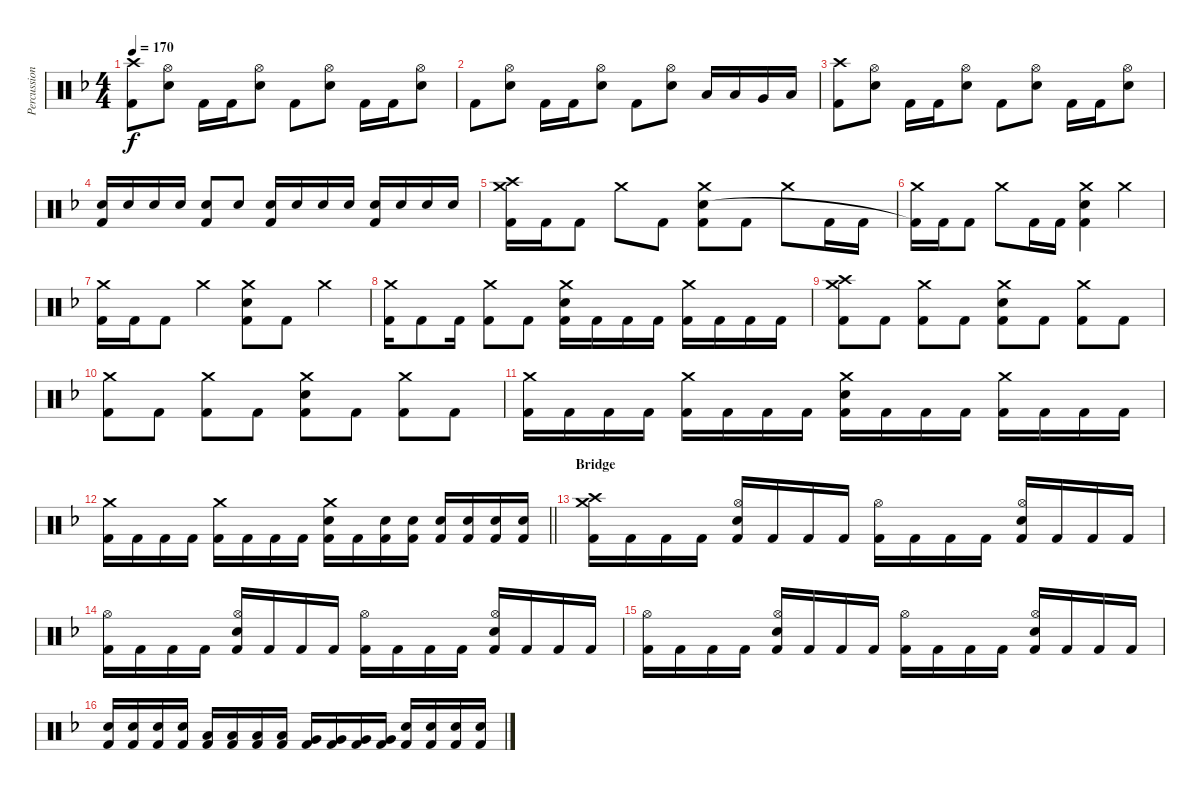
\track ("Percussion" "Percussion") {instrument percussion}
\staff {score}
\articulation defaults
\ts (4 4)
\tempo 170
\clef neutral
\ks dminor
("Crash high (hit)" "Kick (hit) 2").8{dy f} ("Hi-Hat (open)" "Electric Snare (hit)").8 "Kick (hit) 2".16 "Kick (hit) 2".16 ("Hi-Hat (open)" "Electric Snare (hit)").8 "Kick (hit) 2".8 ("Hi-Hat (open)" "Electric Snare (hit)").8 "Kick (hit) 2".16 "Kick (hit) 2".16 ("Hi-Hat (open)" "Electric Snare (hit)").8 |
"Kick (hit) 2".8 ("Hi-Hat (open)" "Electric Snare (hit)").8 "Kick (hit) 2".16 "Kick (hit) 2".16 ("Hi-Hat (open)" "Electric Snare (hit)").8 "Kick (hit) 2".8 ("Hi-Hat (open)" "Electric Snare (hit)").8 "Low Tom (hit)".16 "Low Tom (hit)".16 "Very Low Tom (hit)".16 "Low Floor Tom (hit)".16 |
("Crash high (hit)" "Kick (hit) 2").8 ("Hi-Hat (open)" "Electric Snare (hit)").8 "Kick (hit) 2".16 "Kick (hit) 2".16 ("Hi-Hat (open)" "Electric Snare (hit)").8 "Kick (hit) 2".8 ("Hi-Hat (open)" "Electric Snare (hit)").8 "Kick (hit) 2".16 "Kick (hit) 2".16 ("Hi-Hat (open)" "Electric Snare (hit)").8 |
("Electric Snare (hit)" "Kick (hit) 2").16 "Electric Snare (hit)".16 "Electric Snare (hit)".16 "Electric Snare (hit)".16 ("Electric Snare (hit)" "Kick (hit) 2").8 "Electric Snare (hit)".8 ("Electric Snare (hit)" "Kick (hit) 2").16 "Electric Snare (hit)".16 "Electric Snare (hit)".16 "Electric Snare (hit)".16 ("Electric Snare (hit)" "Kick (hit) 2").16 "Electric Snare (hit)".16 "Electric Snare (hit)".16 "Electric Snare (hit)".16 |
("Crash medium (hit)" "Crash high (hit)" "Kick (hit) 2").16 "Kick (hit) 2".16 "Kick (hit) 2".8 "Crash medium (hit)".8 "Kick (hit) 2".8 ("Crash medium (hit)" "Electric Snare (hit)" "Kick (hit) 2").8 "Kick (hit) 2".8 "Crash medium (hit)".8 "Kick (hit) 2".16 "Kick (hit) 2".16 |
("Crash medium (hit)" "Kick (hit) 2"{t}).16 "Kick (hit) 2".16 "Kick (hit) 2".8 "Crash medium (hit)".8 "Kick (hit) 2".16 "Kick (hit) 2".16 ("Crash medium (hit)" "Electric Snare (hit)" "Kick (hit) 2").4 "Crash medium (hit)".4 |
("Crash medium (hit)" "Kick (hit) 2").16 "Kick (hit) 2".16 "Kick (hit) 2".8 "Crash medium (hit)".4 ("Crash medium (hit)" "Electric Snare (hit)" "Kick (hit) 2").8 "Kick (hit) 2".8 "Crash medium (hit)".4 |
("Crash medium (hit)" "Kick (hit) 2").16 "Kick (hit) 2".8 "Kick (hit) 2".16 ("Crash medium (hit)" "Kick (hit) 2").8 "Kick (hit) 2".8 ("Crash medium (hit)" "Electric Snare (hit)" "Kick (hit) 2").16 "Kick (hit) 2".16 "Kick (hit) 2".16 "Kick (hit) 2".16 ("Crash medium (hit)" "Kick (hit) 2").16 "Kick (hit) 2".16 "Kick (hit) 2".16 "Kick (hit) 2".16 |
("Crash medium (hit)" "Crash high (hit)" "Kick (hit) 2").8 "Kick (hit) 2".8 ("Crash medium (hit)" "Kick (hit) 2").8 "Kick (hit) 2".8 ("Crash medium (hit)" "Electric Snare (hit)" "Kick (hit) 2").8 "Kick (hit) 2".8 ("Crash medium (hit)" "Kick (hit) 2").8 "Kick (hit) 2".8 |
("Crash medium (hit)" "Kick (hit) 2").8 "Kick (hit) 2".8 ("Crash medium (hit)" "Kick (hit) 2").8 "Kick (hit) 2".8 ("Crash medium (hit)" "Electric Snare (hit)" "Kick (hit) 2").8 "Kick (hit) 2".8 ("Crash medium (hit)" "Kick (hit) 2").8 "Kick (hit) 2".8 |
("Crash medium (hit)" "Kick (hit) 2").16 "Kick (hit) 2".16 "Kick (hit) 2".16 "Kick (hit) 2".16 ("Crash medium (hit)" "Kick (hit) 2").16 "Kick (hit) 2".16 "Kick (hit) 2".16 "Kick (hit) 2".16 ("Crash medium (hit)" "Electric Snare (hit)" "Kick (hit) 2").16 "Kick (hit) 2".16 "Kick (hit) 2".16 "Kick (hit) 2".16 ("Crash medium (hit)" "Kick (hit) 2").16 "Kick (hit) 2".16 "Kick (hit) 2".16 "Kick (hit) 2".16 |
\barLineRight lightlight
("Crash medium (hit)" "Kick (hit) 2").16 "Kick (hit) 2".16 "Kick (hit) 2".16 "Kick (hit) 2".16 ("Crash medium (hit)" "Kick (hit) 2").16 "Kick (hit) 2".16 "Kick (hit) 2".16 "Kick (hit) 2".16 ("Crash medium (hit)" "Electric Snare (hit)" "Kick (hit) 2").16 "Kick (hit) 2".16 ("Electric Snare (hit)" "Kick (hit) 2").16 ("Electric Snare (hit)" "Kick (hit) 2").16 ("Electric Snare (hit)" "Kick (hit) 2").16 ("Electric Snare (hit)" "Kick (hit) 2").16 ("Electric Snare (hit)" "Kick (hit) 2").16 ("Electric Snare (hit)" "Kick (hit) 2").16 |
\section ("" "Bridge")
("Crash medium (hit)" "Crash high (hit)" "Kick (hit) 2").16 "Kick (hit) 2".16 "Kick (hit) 2".16 "Kick (hit) 2".16 ("Hi-Hat (open)" "Electric Snare (hit)" "Kick (hit) 2").16 "Kick (hit) 2".16 "Kick (hit) 2".16 "Kick (hit) 2".16 ("Hi-Hat (open)" "Kick (hit) 2").16 "Kick (hit) 2".16 "Kick (hit) 2".16 "Kick (hit) 2".16 ("Hi-Hat (open)" "Electric Snare (hit)" "Kick (hit) 2").16 "Kick (hit) 2".16 "Kick (hit) 2".16 "Kick (hit) 2".16 |
("Hi-Hat (open)" "Kick (hit) 2").16 "Kick (hit) 2".16 "Kick (hit) 2".16 "Kick (hit) 2".16 ("Hi-Hat (open)" "Electric Snare (hit)" "Kick (hit) 2").16 "Kick (hit) 2".16 "Kick (hit) 2".16 "Kick (hit) 2".16 ("Hi-Hat (open)" "Kick (hit) 2").16 "Kick (hit) 2".16 "Kick (hit) 2".16 "Kick (hit) 2".16 ("Hi-Hat (open)" "Electric Snare (hit)" "Kick (hit) 2").16 "Kick (hit) 2".16 "Kick (hit) 2".16 "Kick (hit) 2".16 |
("Hi-Hat (open)" "Kick (hit) 2").16 "Kick (hit) 2".16 "Kick (hit) 2".16 "Kick (hit) 2".16 ("Hi-Hat (open)" "Electric Snare (hit)" "Kick (hit) 2").16 "Kick (hit) 2".16 "Kick (hit) 2".16 "Kick (hit) 2".16 ("Hi-Hat (open)" "Kick (hit) 2").16 "Kick (hit) 2".16 "Kick (hit) 2".16 "Kick (hit) 2".16 ("Hi-Hat (open)" "Electric Snare (hit)" "Kick (hit) 2").16 "Kick (hit) 2".16 "Kick (hit) 2".16 "Kick (hit) 2".16 |
("Electric Snare (hit)" "Kick (hit) 2").16 ("Electric Snare (hit)" "Kick (hit) 2").16 ("Electric Snare (hit)" "Kick (hit) 2").16 ("Electric Snare (hit)" "Kick (hit) 2").16 ("Low Tom (hit)" "Kick (hit) 2").16 ("Low Tom (hit)" "Kick (hit) 2").16 ("Low Tom (hit)" "Kick (hit) 2").16 ("Low Tom (hit)" "Kick (hit) 2").16 ("Very Low Tom (hit)" "Kick (hit) 2").16 ("Very Low Tom (hit)" "Kick (hit) 2").16 ("Very Low Tom (hit)" "Kick (hit) 2").16 ("Very Low Tom (hit)" "Kick (hit) 2").16 ("Electric Snare (hit)" "Kick (hit) 2").16 ("Electric Snare (hit)" "Kick (hit) 2").16 ("Electric Snare (hit)" "Kick (hit) 2").16 ("Electric Snare (hit)" "Kick (hit) 2").16
